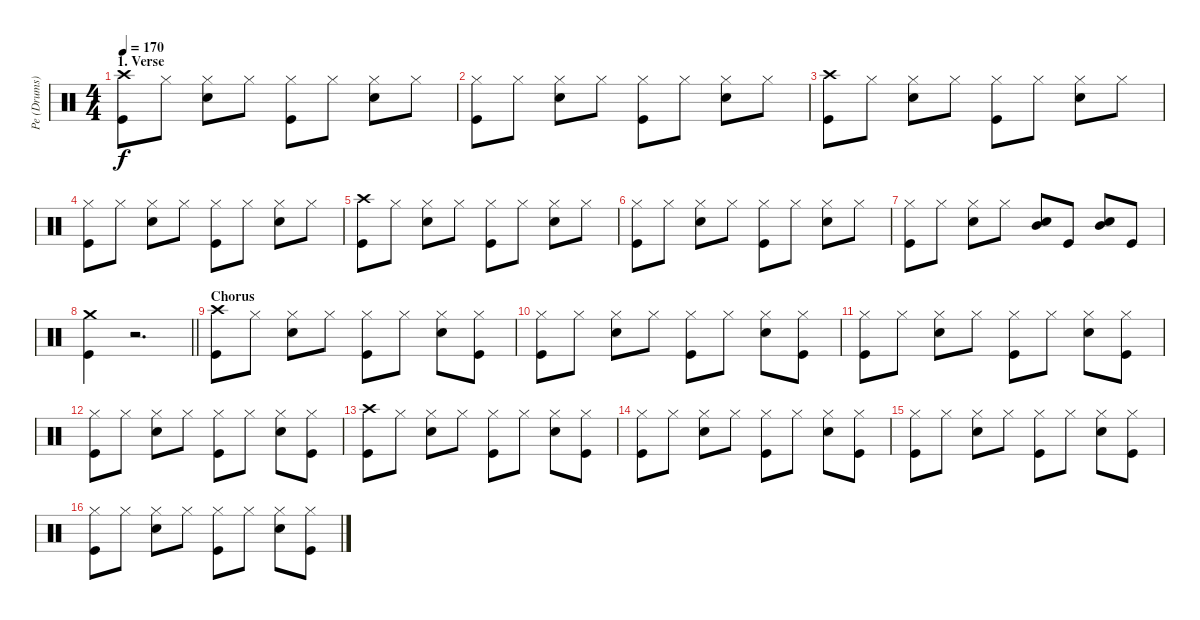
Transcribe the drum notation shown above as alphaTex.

\track ("Pe (Drums)" "Pe (Drums)") {instrument percussion}
\staff {score}
\articulation defaults
\ts (4 4)
\section ("" "1. Verse")
\tempo 170
\clef neutral
\ks c
("Crash high (hit)" "Kick (hit)").8{dy f} "Hi-Hat (closed)".8 ("Hi-Hat (closed)" "Snare (hit) 2").8 "Hi-Hat (closed)".8 ("Hi-Hat (closed)" "Kick (hit)").8 "Hi-Hat (closed)".8 ("Hi-Hat (closed)" "Snare (hit) 2").8 "Hi-Hat (closed)".8 |
("Hi-Hat (closed)" "Kick (hit)").8 "Hi-Hat (closed)".8 ("Hi-Hat (closed)" "Snare (hit) 2").8 "Hi-Hat (closed)".8 ("Hi-Hat (closed)" "Kick (hit)").8 "Hi-Hat (closed)".8 ("Hi-Hat (closed)" "Snare (hit) 2").8 "Hi-Hat (closed)".8 |
("Crash high (hit)" "Kick (hit)").8 "Hi-Hat (closed)".8 ("Hi-Hat (closed)" "Snare (hit) 2").8 "Hi-Hat (closed)".8 ("Hi-Hat (closed)" "Kick (hit)").8 "Hi-Hat (closed)".8 ("Hi-Hat (closed)" "Snare (hit) 2").8 "Hi-Hat (closed)".8 |
("Hi-Hat (closed)" "Kick (hit)").8 "Hi-Hat (closed)".8 ("Hi-Hat (closed)" "Snare (hit) 2").8 "Hi-Hat (closed)".8 ("Hi-Hat (closed)" "Kick (hit)").8 "Hi-Hat (closed)".8 ("Hi-Hat (closed)" "Snare (hit) 2").8 "Hi-Hat (closed)".8 |
("Crash high (hit)" "Kick (hit)").8 "Hi-Hat (closed)".8 ("Hi-Hat (closed)" "Snare (hit) 2").8 "Hi-Hat (closed)".8 ("Hi-Hat (closed)" "Kick (hit)").8 "Hi-Hat (closed)".8 ("Hi-Hat (closed)" "Snare (hit) 2").8 "Hi-Hat (closed)".8 |
("Hi-Hat (closed)" "Kick (hit)").8 "Hi-Hat (closed)".8 ("Hi-Hat (closed)" "Snare (hit) 2").8 "Hi-Hat (closed)".8 ("Hi-Hat (closed)" "Kick (hit)").8 "Hi-Hat (closed)".8 ("Hi-Hat (closed)" "Snare (hit) 2").8 "Hi-Hat (closed)".8 |
("Hi-Hat (closed)" "Kick (hit)").8 "Hi-Hat (closed)".8 ("Hi-Hat (closed)" "Snare (hit) 2").8 "Hi-Hat (closed)".8 ("Snare (hit) 2" "Mid Tom (hit)").8 "Kick (hit)".8 ("Snare (hit) 2" "Mid Tom (hit)").8 "Kick (hit)".8 |
\barLineRight lightlight
("Crash medium (hit)" "Kick (hit)").4 r.2{d} |
\section ("" "Chorus")
("Crash high (hit)" "Kick (hit)").8 "Hi-Hat (closed)".8 ("Hi-Hat (closed)" "Snare (hit) 2").8 "Hi-Hat (closed)".8 ("Hi-Hat (closed)" "Kick (hit)").8 "Hi-Hat (closed)".8 ("Hi-Hat (closed)" "Snare (hit) 2").8 ("Hi-Hat (closed)" "Kick (hit)").8 |
("Hi-Hat (closed)" "Kick (hit)").8 "Hi-Hat (closed)".8 ("Hi-Hat (closed)" "Snare (hit) 2").8 "Hi-Hat (closed)".8 ("Hi-Hat (closed)" "Kick (hit)").8 "Hi-Hat (closed)".8 ("Hi-Hat (closed)" "Snare (hit) 2").8 ("Hi-Hat (closed)" "Kick (hit)").8 |
("Hi-Hat (closed)" "Kick (hit)").8 "Hi-Hat (closed)".8 ("Hi-Hat (closed)" "Snare (hit) 2").8 "Hi-Hat (closed)".8 ("Hi-Hat (closed)" "Kick (hit)").8 "Hi-Hat (closed)".8 ("Hi-Hat (closed)" "Snare (hit) 2").8 ("Hi-Hat (closed)" "Kick (hit)").8 |
("Hi-Hat (closed)" "Kick (hit)").8 "Hi-Hat (closed)".8 ("Hi-Hat (closed)" "Snare (hit) 2").8 "Hi-Hat (closed)".8 ("Hi-Hat (closed)" "Kick (hit)").8 "Hi-Hat (closed)".8 ("Hi-Hat (closed)" "Snare (hit) 2").8 ("Hi-Hat (closed)" "Kick (hit)").8 |
("Crash high (hit)" "Kick (hit)").8 "Hi-Hat (closed)".8 ("Hi-Hat (closed)" "Snare (hit) 2").8 "Hi-Hat (closed)".8 ("Hi-Hat (closed)" "Kick (hit)").8 "Hi-Hat (closed)".8 ("Hi-Hat (closed)" "Snare (hit) 2").8 ("Hi-Hat (closed)" "Kick (hit)").8 |
("Hi-Hat (closed)" "Kick (hit)").8 "Hi-Hat (closed)".8 ("Hi-Hat (closed)" "Snare (hit) 2").8 "Hi-Hat (closed)".8 ("Hi-Hat (closed)" "Kick (hit)").8 "Hi-Hat (closed)".8 ("Hi-Hat (closed)" "Snare (hit) 2").8 ("Hi-Hat (closed)" "Kick (hit)").8 |
("Hi-Hat (closed)" "Kick (hit)").8 "Hi-Hat (closed)".8 ("Hi-Hat (closed)" "Snare (hit) 2").8 "Hi-Hat (closed)".8 ("Hi-Hat (closed)" "Kick (hit)").8 "Hi-Hat (closed)".8 ("Hi-Hat (closed)" "Snare (hit) 2").8 ("Hi-Hat (closed)" "Kick (hit)").8 |
("Hi-Hat (closed)" "Kick (hit)").8 "Hi-Hat (closed)".8 ("Hi-Hat (closed)" "Snare (hit) 2").8 "Hi-Hat (closed)".8 ("Hi-Hat (closed)" "Kick (hit)").8 "Hi-Hat (closed)".8 ("Hi-Hat (closed)" "Snare (hit) 2").8 ("Hi-Hat (closed)" "Kick (hit)").8
